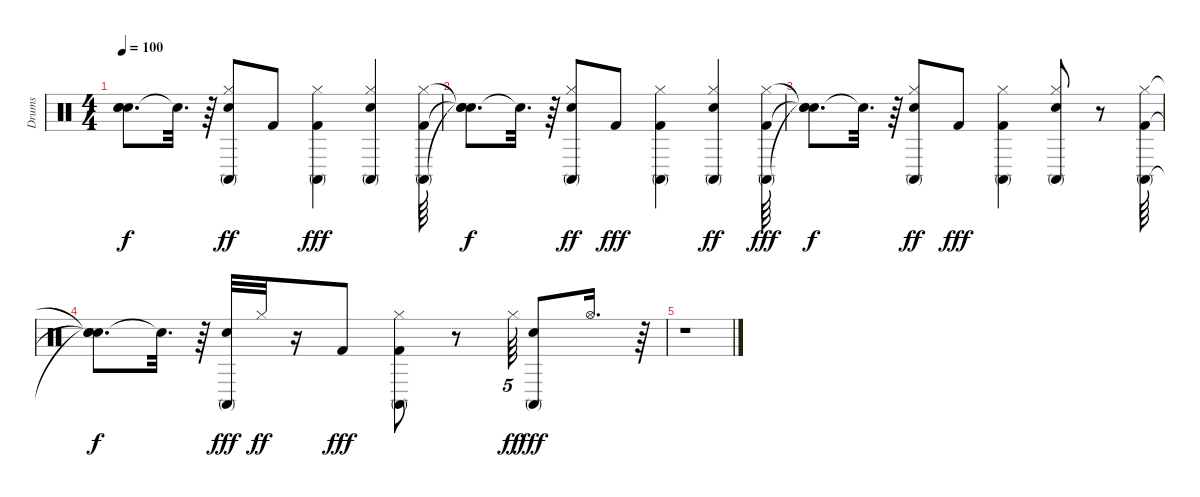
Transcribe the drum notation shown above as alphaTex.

\track ("Drums" "Drums") {instrument percussion}
\staff {score}
\articulation defaults
\ts (4 4)
\tempo 100
\clef neutral
\ks c
("Snare (hit)"{t} "Snare (hit)"{t} "Snare (hit)"{t}).8{d dy f} "Snare (hit)"{t}.32{d} r.64 ("Hi-Hat (closed)" "Conga high (mute)" "Snare (hit) 2").8{dy ff volume 4} "Kick (hit) 2".8{volume 4} ("Hi-Hat (closed)" "Conga high (mute)" "Kick (hit) 2").4{dy fff volume 4} ("Hi-Hat (closed)" "Conga high (mute)" "Snare (hit) 2").4{volume 4} ("Hi-Hat (closed)" "Conga high (mute)" "Kick (hit) 2").64{volume 3} |
("Snare (hit)"{t} "Snare (hit)"{t} "Snare (hit)"{t}).8{d dy f} "Snare (hit)"{t}.32{d} r.64 ("Conga high (mute)" "Snare (hit) 2" "Hi-Hat (closed)").8{dy ff volume 3} "Kick (hit) 2".8{dy fff volume 3} ("Hi-Hat (closed)" "Conga high (mute)" "Kick (hit) 2").4{volume 2} ("Conga high (mute)" "Snare (hit) 2" "Hi-Hat (closed)").4{dy ff volume 2} ("Hi-Hat (closed)" "Conga high (mute)" "Kick (hit) 2").64{dy fff volume 2} |
("Snare (hit)"{t} "Snare (hit)"{t} "Snare (hit)"{t}).8{d dy f} "Snare (hit)"{t}.32{d} r.64 ("Conga high (mute)" "Snare (hit) 2" "Hi-Hat (closed)").8{dy ff volume 2} "Kick (hit) 2".8{dy fff volume 1} ("Hi-Hat (closed)" "Conga high (mute)" "Kick (hit) 2").4{volume 1} ("Hi-Hat (closed)" "Conga high (mute)" "Snare (hit) 2").8{volume 1} r.8 ("Hi-Hat (closed)" "Kick (hit) 2" "Conga high (mute)").64{volume 1} |
("Snare (hit)"{t} "Snare (hit)"{t} "Snare (hit)"{t}).8{d dy f} "Snare (hit)"{t}.32{d} r.64 ("Snare (hit) 2" "Conga high (mute)").32{dy fff volume 0} "Hi-Hat (closed)".32{dy ff} r.16 "Kick (hit) 2".8{dy fff volume 0} ("Hi-Hat (closed)" "Kick (hit) 2" "Conga high (mute)").8 r.8 "Hi-Hat (closed)".64{tu (5 4) dy ff} ("Conga high (mute)" "Snare (hit) 2").8{dy fff} "Hi-Hat (open)".16{d} r.64 |
r.1
